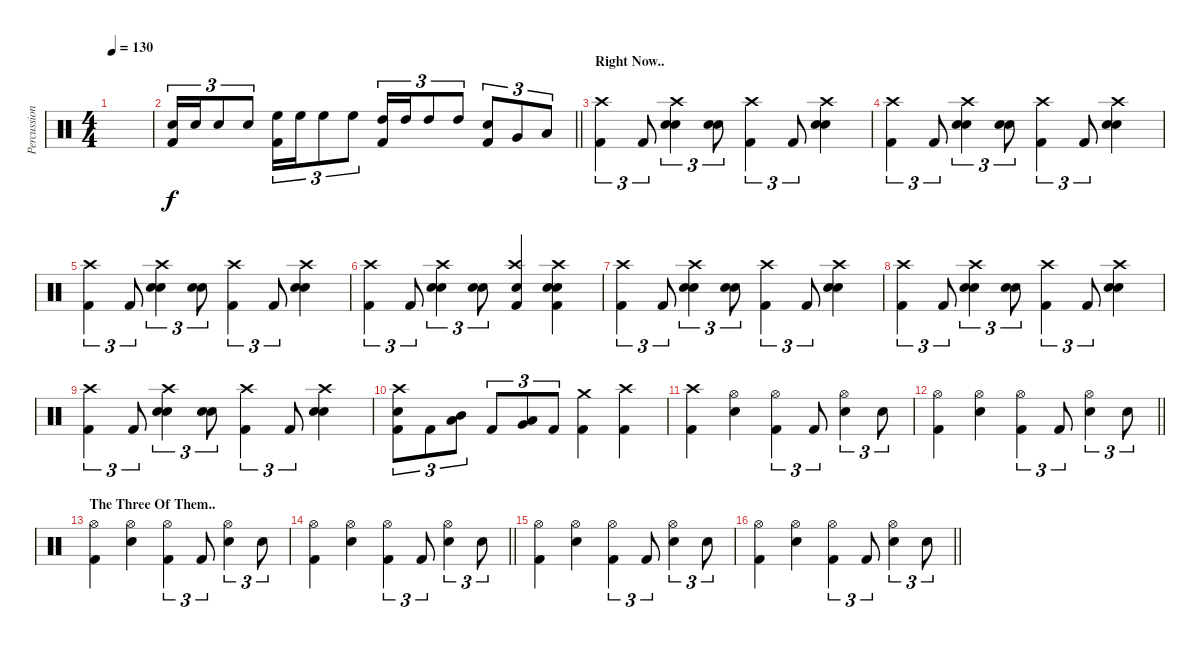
\track ("Percussion" "Percussion") {instrument percussion}
\staff {score}
\articulation defaults
\ts (4 4)
\tempo 130
\clef neutral
\ks c
|
\barLineRight lightlight
("Electric Snare (hit)" "Kick (hit) 2").16{tu (3 2) dy f} "Electric Snare (hit)".16{tu (3 2)} "Electric Snare (hit)".8{tu (3 2)} "Electric Snare (hit)".8{tu (3 2)} ("High Floor Tom (hit)" "Kick (hit) 2").16{tu (3 2)} "High Floor Tom (hit)".16{tu (3 2)} "High Floor Tom (hit)".8{tu (3 2)} "High Floor Tom (hit)".8{tu (3 2)} ("High Tom (hit)" "Kick (hit) 2").16{tu (3 2)} "High Tom (hit)".16{tu (3 2)} "High Tom (hit)".8{tu (3 2)} "High Tom (hit)".8{tu (3 2)} ("Electric Snare (hit)" "Kick (hit) 2").8{tu (3 2)} "Very Low Tom (hit)".8{tu (3 2)} "Low Floor Tom (hit)".8{tu (3 2)} |
\section ("" "Right Now..")
("Crash high (hit)" "Kick (hit) 2").4{tu (3 2)} "Kick (hit) 2".8{tu (3 2)} ("Crash high (hit)" "Hand Clap (hit)" "Electric Snare (hit)").4{tu (3 2)} ("Hand Clap (hit)" "Electric Snare (hit)").8{tu (3 2)} ("Crash high (hit)" "Kick (hit) 2").4{tu (3 2)} "Kick (hit) 2".8{tu (3 2)} ("Crash high (hit)" "Hand Clap (hit)" "Electric Snare (hit)").4 |
("Crash high (hit)" "Kick (hit) 2").4{tu (3 2)} "Kick (hit) 2".8{tu (3 2)} ("Crash high (hit)" "Hand Clap (hit)" "Electric Snare (hit)").4{tu (3 2)} ("Hand Clap (hit)" "Electric Snare (hit)").8{tu (3 2)} ("Crash high (hit)" "Kick (hit) 2").4{tu (3 2)} "Kick (hit) 2".8{tu (3 2)} ("Crash high (hit)" "Hand Clap (hit)" "Electric Snare (hit)").4 |
("Crash high (hit)" "Kick (hit) 2").4{tu (3 2)} "Kick (hit) 2".8{tu (3 2)} ("Crash high (hit)" "Hand Clap (hit)" "Electric Snare (hit)").4{tu (3 2)} ("Hand Clap (hit)" "Electric Snare (hit)").8{tu (3 2)} ("Crash high (hit)" "Kick (hit) 2").4{tu (3 2)} "Kick (hit) 2".8{tu (3 2)} ("Crash high (hit)" "Hand Clap (hit)" "Electric Snare (hit)").4 |
("Crash high (hit)" "Kick (hit) 2").4{tu (3 2)} "Kick (hit) 2".8{tu (3 2)} ("Crash high (hit)" "Hand Clap (hit)" "Electric Snare (hit)").4{tu (3 2)} ("Hand Clap (hit)" "Electric Snare (hit)").8{tu (3 2)} ("Crash high (hit)" "Hand Clap (hit)" "Kick (hit) 2").4 ("Crash high (hit)" "Hand Clap (hit)" "Electric Snare (hit)" "Kick (hit) 2").4 |
("Crash high (hit)" "Kick (hit) 2").4{tu (3 2)} "Kick (hit) 2".8{tu (3 2)} ("Crash high (hit)" "Hand Clap (hit)" "Electric Snare (hit)").4{tu (3 2)} ("Hand Clap (hit)" "Electric Snare (hit)").8{tu (3 2)} ("Crash high (hit)" "Kick (hit) 2").4{tu (3 2)} "Kick (hit) 2".8{tu (3 2)} ("Crash high (hit)" "Hand Clap (hit)" "Electric Snare (hit)").4 |
("Crash high (hit)" "Kick (hit) 2").4{tu (3 2)} "Kick (hit) 2".8{tu (3 2)} ("Crash high (hit)" "Hand Clap (hit)" "Electric Snare (hit)").4{tu (3 2)} ("Hand Clap (hit)" "Electric Snare (hit)").8{tu (3 2)} ("Crash high (hit)" "Kick (hit) 2").4{tu (3 2)} "Kick (hit) 2".8{tu (3 2)} ("Crash high (hit)" "Hand Clap (hit)" "Electric Snare (hit)").4 |
("Crash high (hit)" "Kick (hit) 2").4{tu (3 2)} "Kick (hit) 2".8{tu (3 2)} ("Crash high (hit)" "Hand Clap (hit)" "Electric Snare (hit)").4{tu (3 2)} ("Hand Clap (hit)" "Electric Snare (hit)").8{tu (3 2)} ("Crash high (hit)" "Kick (hit) 2").4{tu (3 2)} "Kick (hit) 2".8{tu (3 2)} ("Crash high (hit)" "Hand Clap (hit)" "Electric Snare (hit)").4 |
("Crash high (hit)" "Electric Snare (hit)" "Kick (hit) 2").8{tu (3 2)} "Kick (hit) 2".8{tu (3 2)} ("Mid Tom (hit)" "Low Tom (hit)").8{tu (3 2)} "Kick (hit) 2".8{tu (3 2)} ("Low Tom (hit)" "Very Low Tom (hit)").8{tu (3 2)} "Kick (hit) 2".8{tu (3 2)} ("Crash medium (hit)" "Kick (hit) 2").4 ("Crash high (hit)" "Kick (hit) 2").4 |
("Crash high (hit)" "Kick (hit) 2").4 ("Hi-Hat (open)" "Electric Snare (hit)").4 ("Hi-Hat (open)" "Kick (hit) 2").4{tu (3 2)} "Kick (hit) 2".8{tu (3 2)} ("Hi-Hat (open)" "Electric Snare (hit)").4{tu (3 2)} "Electric Snare (hit)".8{tu (3 2)} |
\barLineRight lightlight
("Hi-Hat (open)" "Kick (hit) 2").4 ("Hi-Hat (open)" "Electric Snare (hit)").4 ("Hi-Hat (open)" "Kick (hit) 2").4{tu (3 2)} "Kick (hit) 2".8{tu (3 2)} ("Hi-Hat (open)" "Electric Snare (hit)").4{tu (3 2)} "Electric Snare (hit)".8{tu (3 2)} |
\section ("" "The Three Of Them..")
("Hi-Hat (open)" "Kick (hit) 2").4 ("Hi-Hat (open)" "Electric Snare (hit)").4 ("Hi-Hat (open)" "Kick (hit) 2").4{tu (3 2)} "Kick (hit) 2".8{tu (3 2)} ("Hi-Hat (open)" "Electric Snare (hit)").4{tu (3 2)} "Electric Snare (hit)".8{tu (3 2)} |
\barLineRight lightlight
("Hi-Hat (open)" "Kick (hit) 2").4 ("Hi-Hat (open)" "Electric Snare (hit)").4 ("Hi-Hat (open)" "Kick (hit) 2").4{tu (3 2)} "Kick (hit) 2".8{tu (3 2)} ("Hi-Hat (open)" "Electric Snare (hit)").4{tu (3 2)} "Electric Snare (hit)".8{tu (3 2)} |
("Hi-Hat (open)" "Kick (hit) 2").4 ("Hi-Hat (open)" "Electric Snare (hit)").4 ("Hi-Hat (open)" "Kick (hit) 2").4{tu (3 2)} "Kick (hit) 2".8{tu (3 2)} ("Hi-Hat (open)" "Electric Snare (hit)").4{tu (3 2)} "Electric Snare (hit)".8{tu (3 2)} |
\barLineRight lightlight
("Hi-Hat (open)" "Kick (hit) 2").4 ("Hi-Hat (open)" "Electric Snare (hit)").4 ("Hi-Hat (open)" "Kick (hit) 2").4{tu (3 2)} "Kick (hit) 2".8{tu (3 2)} ("Hi-Hat (open)" "Electric Snare (hit)").4{tu (3 2)} "Electric Snare (hit)".8{tu (3 2)}
